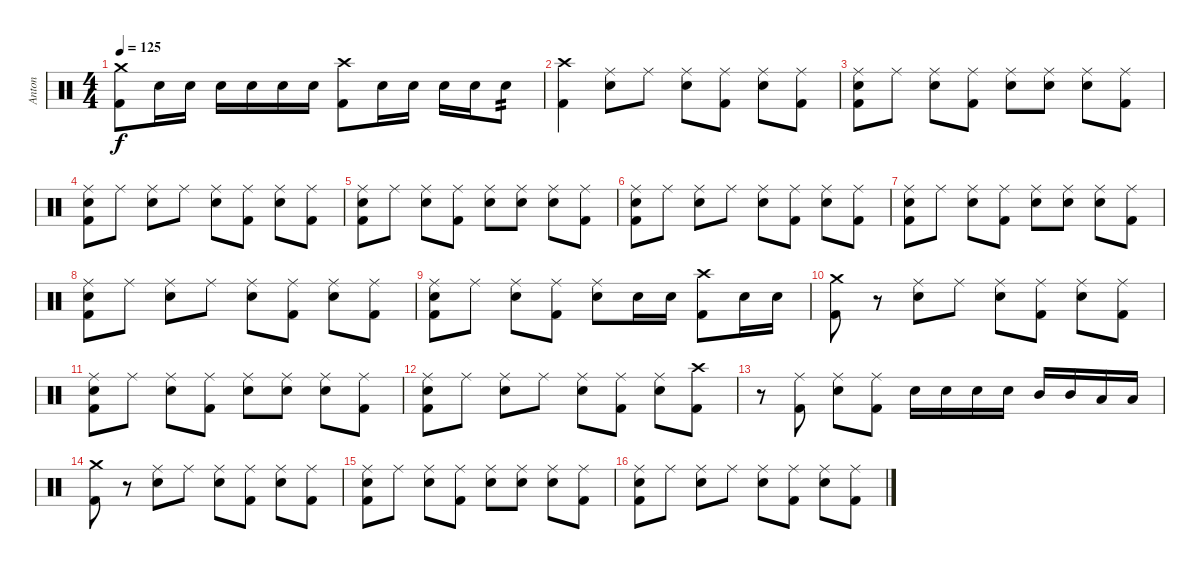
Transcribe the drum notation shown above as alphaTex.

\track ("Anton" "Anton") {instrument percussion}
\staff {score}
\articulation defaults
\ts (4 4)
\tempo 125
\clef neutral
\ks c
("Kick (hit) 2" "Crash medium (hit)").8{dy f} "Electric Snare (hit)".16 "Electric Snare (hit)".16 "Electric Snare (hit)".16 "Electric Snare (hit)".16 "Electric Snare (hit)".16 "Electric Snare (hit)".16 ("Kick (hit) 2" "Crash high (hit)").8 "Electric Snare (hit)".16 "Electric Snare (hit)".16 "Electric Snare (hit)".16 "Electric Snare (hit)".16 "Electric Snare (hit)".8{tp 2} |
("Kick (hit) 2" "Crash high (hit)").4 ("Electric Snare (hit)" "Ride (middle)").8 "Ride (middle)".8 ("Electric Snare (hit)" "Ride (middle)").8 ("Kick (hit) 2" "Ride (middle)").8 ("Electric Snare (hit)" "Ride (middle)").8 ("Kick (hit) 2" "Ride (middle)").8 |
("Kick (hit) 2" "Electric Snare (hit)" "Ride (middle)").8 "Ride (middle)".8 ("Electric Snare (hit)" "Ride (middle)").8 ("Kick (hit) 2" "Ride (middle)").8 ("Electric Snare (hit)" "Ride (middle)").8 ("Electric Snare (hit)" "Ride (middle)").8 ("Electric Snare (hit)" "Ride (middle)").8 ("Kick (hit) 2" "Ride (middle)").8 |
("Kick (hit) 2" "Electric Snare (hit)" "Ride (middle)").8 "Ride (middle)".8 ("Electric Snare (hit)" "Ride (middle)").8 "Ride (middle)".8 ("Electric Snare (hit)" "Ride (middle)").8 ("Kick (hit) 2" "Ride (middle)").8 ("Electric Snare (hit)" "Ride (middle)").8 ("Kick (hit) 2" "Ride (middle)").8 |
("Kick (hit) 2" "Electric Snare (hit)" "Ride (middle)").8 "Ride (middle)".8 ("Electric Snare (hit)" "Ride (middle)").8 ("Kick (hit) 2" "Ride (middle)").8 ("Electric Snare (hit)" "Ride (middle)").8 ("Electric Snare (hit)" "Ride (middle)").8 ("Electric Snare (hit)" "Ride (middle)").8 ("Kick (hit) 2" "Ride (middle)").8 |
("Kick (hit) 2" "Electric Snare (hit)" "Ride (middle)").8 "Ride (middle)".8 ("Electric Snare (hit)" "Ride (middle)").8 "Ride (middle)".8 ("Electric Snare (hit)" "Ride (middle)").8 ("Kick (hit) 2" "Ride (middle)").8 ("Electric Snare (hit)" "Ride (middle)").8 ("Kick (hit) 2" "Ride (middle)").8 |
("Kick (hit) 2" "Electric Snare (hit)" "Ride (middle)").8 "Ride (middle)".8 ("Electric Snare (hit)" "Ride (middle)").8 ("Kick (hit) 2" "Ride (middle)").8 ("Electric Snare (hit)" "Ride (middle)").8 ("Electric Snare (hit)" "Ride (middle)").8 ("Electric Snare (hit)" "Ride (middle)").8 ("Kick (hit) 2" "Ride (middle)").8 |
("Kick (hit) 2" "Electric Snare (hit)" "Ride (middle)").8 "Ride (middle)".8 ("Electric Snare (hit)" "Ride (middle)").8 "Ride (middle)".8 ("Electric Snare (hit)" "Ride (middle)").8 ("Kick (hit) 2" "Ride (middle)").8 ("Electric Snare (hit)" "Ride (middle)").8 ("Kick (hit) 2" "Ride (middle)").8 |
("Kick (hit) 2" "Electric Snare (hit)" "Ride (middle)").8 "Ride (middle)".8 ("Electric Snare (hit)" "Ride (middle)").8 ("Kick (hit) 2" "Ride (middle)").8 ("Electric Snare (hit)" "Ride (middle)").8 "Electric Snare (hit)".16 "Electric Snare (hit)".16 ("Kick (hit) 2" "Crash high (hit)").8 "Electric Snare (hit)".16 "Electric Snare (hit)".16 |
("Kick (hit) 2" "Crash medium (hit)").8 r.8 ("Electric Snare (hit)" "Ride (middle)").8 "Ride (middle)".8 ("Electric Snare (hit)" "Ride (middle)").8 ("Kick (hit) 2" "Ride (middle)").8 ("Electric Snare (hit)" "Ride (middle)").8 ("Kick (hit) 2" "Ride (middle)").8 |
("Kick (hit) 2" "Electric Snare (hit)" "Ride (middle)").8 "Ride (middle)".8 ("Electric Snare (hit)" "Ride (middle)").8 ("Kick (hit) 2" "Ride (middle)").8 ("Electric Snare (hit)" "Ride (middle)").8 ("Electric Snare (hit)" "Ride (middle)").8 ("Electric Snare (hit)" "Ride (middle)").8 ("Kick (hit) 2" "Ride (middle)").8 |
("Kick (hit) 2" "Electric Snare (hit)" "Ride (middle)").8 "Ride (middle)".8 ("Electric Snare (hit)" "Ride (middle)").8 "Ride (middle)".8 ("Electric Snare (hit)" "Ride (middle)").8 ("Kick (hit) 2" "Ride (middle)").8 ("Electric Snare (hit)" "Ride (middle)").8 ("Kick (hit) 2" "Crash high (hit)").8 |
r.8 ("Kick (hit) 2" "Ride (middle)").8 ("Electric Snare (hit)" "Ride (middle)").8 ("Kick (hit) 2" "Ride (middle)").8 "Electric Snare (hit)".16 "Electric Snare (hit)".16 "Electric Snare (hit)".16 "Electric Snare (hit)".16 "Mid Tom (hit)".16 "Mid Tom (hit)".16 "Low Tom (hit)".16 "Low Tom (hit)".16 |
("Kick (hit) 2" "Crash medium (hit)").8 r.8 ("Electric Snare (hit)" "Ride (middle)").8 "Ride (middle)".8 ("Electric Snare (hit)" "Ride (middle)").8 ("Kick (hit) 2" "Ride (middle)").8 ("Electric Snare (hit)" "Ride (middle)").8 ("Kick (hit) 2" "Ride (middle)").8 |
("Kick (hit) 2" "Electric Snare (hit)" "Ride (middle)").8 "Ride (middle)".8 ("Electric Snare (hit)" "Ride (middle)").8 ("Kick (hit) 2" "Ride (middle)").8 ("Electric Snare (hit)" "Ride (middle)").8 ("Electric Snare (hit)" "Ride (middle)").8 ("Electric Snare (hit)" "Ride (middle)").8 ("Kick (hit) 2" "Ride (middle)").8 |
("Kick (hit) 2" "Electric Snare (hit)" "Ride (middle)").8 "Ride (middle)".8 ("Electric Snare (hit)" "Ride (middle)").8 "Ride (middle)".8 ("Electric Snare (hit)" "Ride (middle)").8 ("Kick (hit) 2" "Ride (middle)").8 ("Electric Snare (hit)" "Ride (middle)").8 ("Kick (hit) 2" "Ride (middle)").8
